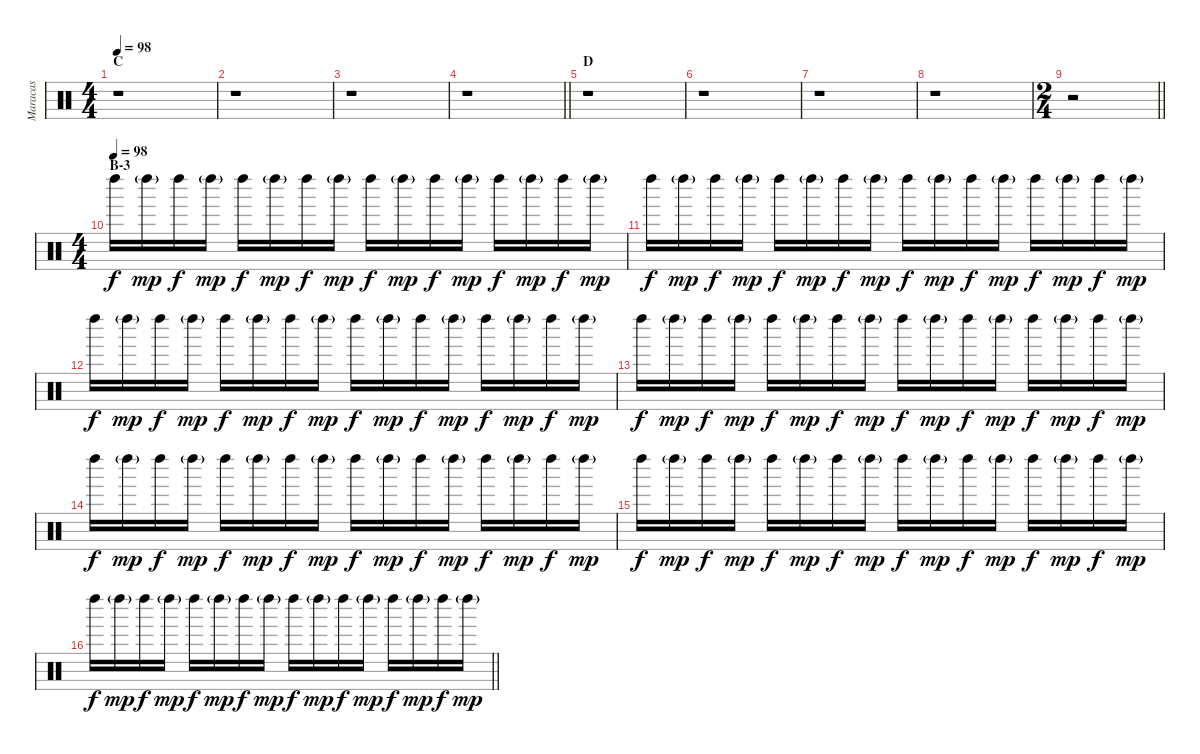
\track ("Maracas" "Maracas") {instrument percussion}
\staff {score}
\articulation defaults
\ts (4 4)
\section ("" "C")
\tempo 98
\clef neutral
\ks c
r.1{dy mp} |
r.1 |
r.1 |
\barLineRight lightlight
r.1 |
\section ("" "D")
r.1 |
r.1 |
r.1 |
r.1 |
\ts (2 4)
\barLineRight lightlight
r.2 |
\ts (4 4)
\section ("" "B-3")
\tempo (98)
"Left Maraca (hit)".16{dy f} "Left Maraca (hit)"{g}.16{dy mp} "Left Maraca (hit)".16{dy f} "Left Maraca (hit)"{g}.16{dy mp} "Left Maraca (hit)".16{dy f} "Left Maraca (hit)"{g}.16{dy mp} "Left Maraca (hit)".16{dy f} "Left Maraca (hit)"{g}.16{dy mp} "Left Maraca (hit)".16{dy f} "Left Maraca (hit)"{g}.16{dy mp} "Left Maraca (hit)".16{dy f} "Left Maraca (hit)"{g}.16{dy mp} "Left Maraca (hit)".16{dy f} "Left Maraca (hit)"{g}.16{dy mp} "Left Maraca (hit)".16{dy f} "Left Maraca (hit)"{g}.16{dy mp} |
"Left Maraca (hit)".16{dy f} "Left Maraca (hit)"{g}.16{dy mp} "Left Maraca (hit)".16{dy f} "Left Maraca (hit)"{g}.16{dy mp} "Left Maraca (hit)".16{dy f} "Left Maraca (hit)"{g}.16{dy mp} "Left Maraca (hit)".16{dy f} "Left Maraca (hit)"{g}.16{dy mp} "Left Maraca (hit)".16{dy f} "Left Maraca (hit)"{g}.16{dy mp} "Left Maraca (hit)".16{dy f} "Left Maraca (hit)"{g}.16{dy mp} "Left Maraca (hit)".16{dy f} "Left Maraca (hit)"{g}.16{dy mp} "Left Maraca (hit)".16{dy f} "Left Maraca (hit)"{g}.16{dy mp} |
"Left Maraca (hit)".16{dy f} "Left Maraca (hit)"{g}.16{dy mp} "Left Maraca (hit)".16{dy f} "Left Maraca (hit)"{g}.16{dy mp} "Left Maraca (hit)".16{dy f} "Left Maraca (hit)"{g}.16{dy mp} "Left Maraca (hit)".16{dy f} "Left Maraca (hit)"{g}.16{dy mp} "Left Maraca (hit)".16{dy f} "Left Maraca (hit)"{g}.16{dy mp} "Left Maraca (hit)".16{dy f} "Left Maraca (hit)"{g}.16{dy mp} "Left Maraca (hit)".16{dy f} "Left Maraca (hit)"{g}.16{dy mp} "Left Maraca (hit)".16{dy f} "Left Maraca (hit)"{g}.16{dy mp} |
"Left Maraca (hit)".16{dy f} "Left Maraca (hit)"{g}.16{dy mp} "Left Maraca (hit)".16{dy f} "Left Maraca (hit)"{g}.16{dy mp} "Left Maraca (hit)".16{dy f} "Left Maraca (hit)"{g}.16{dy mp} "Left Maraca (hit)".16{dy f} "Left Maraca (hit)"{g}.16{dy mp} "Left Maraca (hit)".16{dy f} "Left Maraca (hit)"{g}.16{dy mp} "Left Maraca (hit)".16{dy f} "Left Maraca (hit)"{g}.16{dy mp} "Left Maraca (hit)".16{dy f} "Left Maraca (hit)"{g}.16{dy mp} "Left Maraca (hit)".16{dy f} "Left Maraca (hit)"{g}.16{dy mp} |
"Left Maraca (hit)".16{dy f} "Left Maraca (hit)"{g}.16{dy mp} "Left Maraca (hit)".16{dy f} "Left Maraca (hit)"{g}.16{dy mp} "Left Maraca (hit)".16{dy f} "Left Maraca (hit)"{g}.16{dy mp} "Left Maraca (hit)".16{dy f} "Left Maraca (hit)"{g}.16{dy mp} "Left Maraca (hit)".16{dy f} "Left Maraca (hit)"{g}.16{dy mp} "Left Maraca (hit)".16{dy f} "Left Maraca (hit)"{g}.16{dy mp} "Left Maraca (hit)".16{dy f} "Left Maraca (hit)"{g}.16{dy mp} "Left Maraca (hit)".16{dy f} "Left Maraca (hit)"{g}.16{dy mp} |
"Left Maraca (hit)".16{dy f} "Left Maraca (hit)"{g}.16{dy mp} "Left Maraca (hit)".16{dy f} "Left Maraca (hit)"{g}.16{dy mp} "Left Maraca (hit)".16{dy f} "Left Maraca (hit)"{g}.16{dy mp} "Left Maraca (hit)".16{dy f} "Left Maraca (hit)"{g}.16{dy mp} "Left Maraca (hit)".16{dy f} "Left Maraca (hit)"{g}.16{dy mp} "Left Maraca (hit)".16{dy f} "Left Maraca (hit)"{g}.16{dy mp} "Left Maraca (hit)".16{dy f} "Left Maraca (hit)"{g}.16{dy mp} "Left Maraca (hit)".16{dy f} "Left Maraca (hit)"{g}.16{dy mp} |
\barLineRight lightlight "Left Maraca (hit)".16{dy f} "Left Maraca (hit)"{g}.16{dy mp} "Left Maraca (hit)".16{dy f} "Left Maraca (hit)"{g}.16{dy mp} "Left Maraca (hit)".16{dy f} "Left Maraca (hit)"{g}.16{dy mp} "Left Maraca (hit)".16{dy f} "Left Maraca (hit)"{g}.16{dy mp} "Left Maraca (hit)".16{dy f} "Left Maraca (hit)"{g}.16{dy mp} "Left Maraca (hit)".16{dy f} "Left Maraca (hit)"{g}.16{dy mp} "Left Maraca (hit)".16{dy f} "Left Maraca (hit)"{g}.16{dy mp} "Left Maraca (hit)".16{dy f} "Left Maraca (hit)"{g}.16{dy mp}
